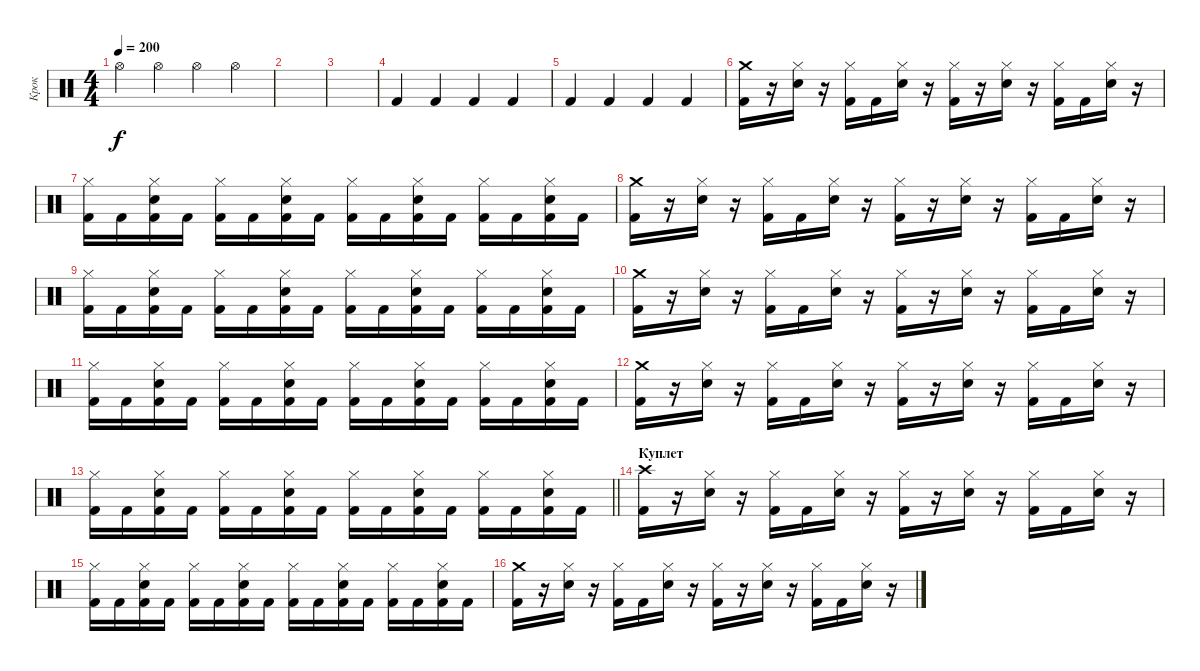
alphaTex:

\track ("Крок" "Крок") {instrument percussion}
\staff {score}
\articulation defaults
\ts (4 4)
\tempo 200
\clef neutral
\ks c "Hi-Hat (open)".4{dy f} "Hi-Hat (open)".4 "Hi-Hat (open)".4 "Hi-Hat (open)".4
|
|
|
"Kick (hit) 2".4 "Kick (hit) 2".4 "Kick (hit) 2".4 "Kick (hit) 2".4 |
"Kick (hit) 2".4 "Kick (hit) 2".4 "Kick (hit) 2".4 "Kick (hit) 2".4 |
("Crash medium (hit)" "Kick (hit) 2").16 r.16 ("Hi-Hat (closed)" "Electric Snare (hit)").16 r.16 ("Hi-Hat (closed)" "Kick (hit) 2").16 "Kick (hit) 2".16 ("Hi-Hat (closed)" "Electric Snare (hit)").16 r.16 ("Hi-Hat (closed)" "Kick (hit) 2").16 r.16 ("Hi-Hat (closed)" "Electric Snare (hit)").16 r.16 ("Hi-Hat (closed)" "Kick (hit) 2").16 "Kick (hit) 2".16 ("Hi-Hat (closed)" "Electric Snare (hit)").16 r.16 |
("Hi-Hat (closed)" "Kick (hit) 2").16 "Kick (hit) 2".16 ("Hi-Hat (closed)" "Electric Snare (hit)" "Kick (hit) 2").16 "Kick (hit) 2".16 ("Hi-Hat (closed)" "Kick (hit) 2").16 "Kick (hit) 2".16 ("Hi-Hat (closed)" "Electric Snare (hit)" "Kick (hit) 2").16 "Kick (hit) 2".16 ("Hi-Hat (closed)" "Kick (hit) 2").16 "Kick (hit) 2".16 ("Hi-Hat (closed)" "Electric Snare (hit)" "Kick (hit) 2").16 "Kick (hit) 2".16 ("Hi-Hat (closed)" "Kick (hit) 2").16 "Kick (hit) 2".16 ("Hi-Hat (closed)" "Electric Snare (hit)" "Kick (hit) 2").16 "Kick (hit) 2".16 |
("Crash medium (hit)" "Kick (hit) 2").16 r.16 ("Hi-Hat (closed)" "Electric Snare (hit)").16 r.16 ("Hi-Hat (closed)" "Kick (hit) 2").16 "Kick (hit) 2".16 ("Hi-Hat (closed)" "Electric Snare (hit)").16 r.16 ("Hi-Hat (closed)" "Kick (hit) 2").16 r.16 ("Hi-Hat (closed)" "Electric Snare (hit)").16 r.16 ("Hi-Hat (closed)" "Kick (hit) 2").16 "Kick (hit) 2".16 ("Hi-Hat (closed)" "Electric Snare (hit)").16 r.16 |
("Hi-Hat (closed)" "Kick (hit) 2").16 "Kick (hit) 2".16 ("Hi-Hat (closed)" "Electric Snare (hit)" "Kick (hit) 2").16 "Kick (hit) 2".16 ("Hi-Hat (closed)" "Kick (hit) 2").16 "Kick (hit) 2".16 ("Hi-Hat (closed)" "Electric Snare (hit)" "Kick (hit) 2").16 "Kick (hit) 2".16 ("Hi-Hat (closed)" "Kick (hit) 2").16 "Kick (hit) 2".16 ("Hi-Hat (closed)" "Electric Snare (hit)" "Kick (hit) 2").16 "Kick (hit) 2".16 ("Hi-Hat (closed)" "Kick (hit) 2").16 "Kick (hit) 2".16 ("Hi-Hat (closed)" "Electric Snare (hit)" "Kick (hit) 2").16 "Kick (hit) 2".16 |
("Crash medium (hit)" "Kick (hit) 2").16 r.16 ("Hi-Hat (closed)" "Electric Snare (hit)").16 r.16 ("Hi-Hat (closed)" "Kick (hit) 2").16 "Kick (hit) 2".16 ("Hi-Hat (closed)" "Electric Snare (hit)").16 r.16 ("Hi-Hat (closed)" "Kick (hit) 2").16 r.16 ("Hi-Hat (closed)" "Electric Snare (hit)").16 r.16 ("Hi-Hat (closed)" "Kick (hit) 2").16 "Kick (hit) 2".16 ("Hi-Hat (closed)" "Electric Snare (hit)").16 r.16 |
("Hi-Hat (closed)" "Kick (hit) 2").16 "Kick (hit) 2".16 ("Hi-Hat (closed)" "Electric Snare (hit)" "Kick (hit) 2").16 "Kick (hit) 2".16 ("Hi-Hat (closed)" "Kick (hit) 2").16 "Kick (hit) 2".16 ("Hi-Hat (closed)" "Electric Snare (hit)" "Kick (hit) 2").16 "Kick (hit) 2".16 ("Hi-Hat (closed)" "Kick (hit) 2").16 "Kick (hit) 2".16 ("Hi-Hat (closed)" "Electric Snare (hit)" "Kick (hit) 2").16 "Kick (hit) 2".16 ("Hi-Hat (closed)" "Kick (hit) 2").16 "Kick (hit) 2".16 ("Hi-Hat (closed)" "Electric Snare (hit)" "Kick (hit) 2").16 "Kick (hit) 2".16 |
("Crash medium (hit)" "Kick (hit) 2").16 r.16 ("Hi-Hat (closed)" "Electric Snare (hit)").16 r.16 ("Hi-Hat (closed)" "Kick (hit) 2").16 "Kick (hit) 2".16 ("Hi-Hat (closed)" "Electric Snare (hit)").16 r.16 ("Hi-Hat (closed)" "Kick (hit) 2").16 r.16 ("Hi-Hat (closed)" "Electric Snare (hit)").16 r.16 ("Hi-Hat (closed)" "Kick (hit) 2").16 "Kick (hit) 2".16 ("Hi-Hat (closed)" "Electric Snare (hit)").16 r.16 |
\barLineRight lightlight
("Hi-Hat (closed)" "Kick (hit) 2").16 "Kick (hit) 2".16 ("Hi-Hat (closed)" "Electric Snare (hit)" "Kick (hit) 2").16 "Kick (hit) 2".16 ("Hi-Hat (closed)" "Kick (hit) 2").16 "Kick (hit) 2".16 ("Hi-Hat (closed)" "Electric Snare (hit)" "Kick (hit) 2").16 "Kick (hit) 2".16 ("Hi-Hat (closed)" "Kick (hit) 2").16 "Kick (hit) 2".16 ("Hi-Hat (closed)" "Electric Snare (hit)" "Kick (hit) 2").16 "Kick (hit) 2".16 ("Hi-Hat (closed)" "Kick (hit) 2").16 "Kick (hit) 2".16 ("Hi-Hat (closed)" "Electric Snare (hit)" "Kick (hit) 2").16 "Kick (hit) 2".16 |
\section ("" "Куплет")
("Crash high (hit)" "Kick (hit) 2").16 r.16 ("Hi-Hat (closed)" "Electric Snare (hit)").16 r.16 ("Hi-Hat (closed)" "Kick (hit) 2").16 "Kick (hit) 2".16 ("Hi-Hat (closed)" "Electric Snare (hit)").16 r.16 ("Hi-Hat (closed)" "Kick (hit) 2").16 r.16 ("Hi-Hat (closed)" "Electric Snare (hit)").16 r.16 ("Hi-Hat (closed)" "Kick (hit) 2").16 "Kick (hit) 2".16 ("Hi-Hat (closed)" "Electric Snare (hit)").16 r.16 |
("Hi-Hat (closed)" "Kick (hit) 2").16 "Kick (hit) 2".16 ("Hi-Hat (closed)" "Electric Snare (hit)" "Kick (hit) 2").16 "Kick (hit) 2".16 ("Hi-Hat (closed)" "Kick (hit) 2").16 "Kick (hit) 2".16 ("Hi-Hat (closed)" "Electric Snare (hit)" "Kick (hit) 2").16 "Kick (hit) 2".16 ("Hi-Hat (closed)" "Kick (hit) 2").16 "Kick (hit) 2".16 ("Hi-Hat (closed)" "Electric Snare (hit)" "Kick (hit) 2").16 "Kick (hit) 2".16 ("Hi-Hat (closed)" "Kick (hit) 2").16 "Kick (hit) 2".16 ("Hi-Hat (closed)" "Electric Snare (hit)" "Kick (hit) 2").16 "Kick (hit) 2".16 |
("Crash medium (hit)" "Kick (hit) 2").16 r.16 ("Hi-Hat (closed)" "Electric Snare (hit)").16 r.16 ("Hi-Hat (closed)" "Kick (hit) 2").16 "Kick (hit) 2".16 ("Hi-Hat (closed)" "Electric Snare (hit)").16 r.16 ("Hi-Hat (closed)" "Kick (hit) 2").16 r.16 ("Hi-Hat (closed)" "Electric Snare (hit)").16 r.16 ("Hi-Hat (closed)" "Kick (hit) 2").16 "Kick (hit) 2".16 ("Hi-Hat (closed)" "Electric Snare (hit)").16 r.16
